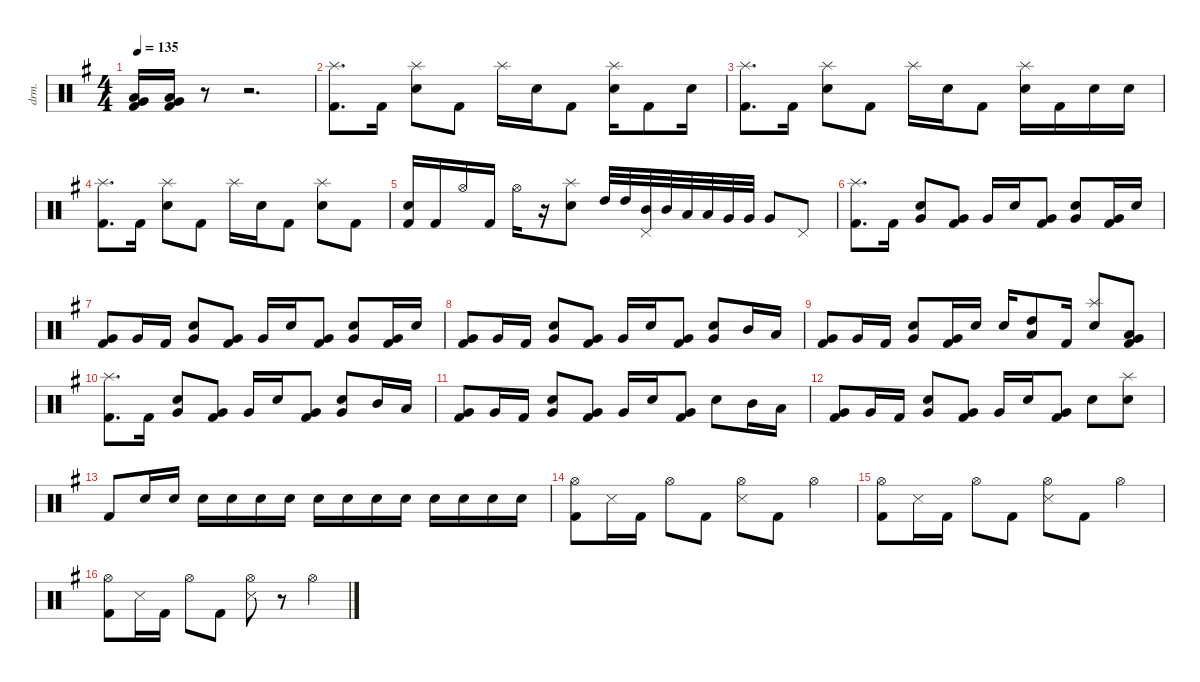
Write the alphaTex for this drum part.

\defaultSystemsLayout 4
\hideDynamics
\bracketExtendMode nobrackets
\track ("榧" "drm.") {instrument percussion}
\staff {score}
\articulation defaults
\ts (4 4)
\tempo 135
\clef neutral
\ks eminor
("Low Tom (hit)"{acc forcenatural} "Very Low Tom (hit)"{acc forcenatural} "Kick (hit) 2"{acc forcenatural}).16{dy mf beam Up} ("Very Low Tom (hit)"{acc forcenatural} "Low Tom (hit)"{acc forcenatural} "Kick (hit) 2"{acc forcenatural}).16{beam Up} r.8{beam Down} r.2{d beam Down} |
("Splash (hit)"{acc forcenatural} "Kick (hit) 2"{acc forcenatural}).8{d beam Down} "Kick (hit) 2"{acc forcenatural}.16{beam Down} ("Snare (hit) 2"{acc forcenatural} "Splash (hit)"{acc forcenatural}).8{beam Down} "Kick (hit) 2"{acc forcenatural}.8{beam Down} "Splash (hit)"{acc forcenatural}.16{beam Down} "Snare (hit) 2"{acc forcenatural}.16{beam Down} "Kick (hit) 2"{acc forcenatural}.8{beam Down} ("Splash (hit)"{acc forcenatural} "Snare (hit) 2"{acc forcenatural}).16{beam Down} "Kick (hit) 2"{acc forcenatural}.8{beam Down} "Snare (hit) 2"{acc forcenatural}.16{beam Down} |
("Splash (hit)"{acc forcenatural} "Kick (hit) 2"{acc forcenatural}).8{d beam Down} "Kick (hit) 2"{acc forcenatural}.16{beam Down} ("Snare (hit) 2"{acc forcenatural} "Splash (hit)"{acc forcenatural}).8{beam Down} "Kick (hit) 2"{acc forcenatural}.8{beam Down} "Splash (hit)"{acc forcenatural}.16{beam Down} "Snare (hit) 2"{acc forcenatural}.16{beam Down} "Kick (hit) 2"{acc forcenatural}.8{beam Down} ("Splash (hit)"{acc forcenatural} "Snare (hit) 2"{acc forcenatural}).16{beam Down} "Kick (hit) 2"{acc forcenatural}.16{beam Down} "Snare (hit) 2"{acc forcenatural}.16{beam Down} "Snare (hit) 2"{acc forcenatural}.16{beam Down} |
("Splash (hit)"{acc forcenatural} "Kick (hit) 2"{acc forcenatural}).8{d beam Down} "Kick (hit) 2"{acc forcenatural}.16{beam Down} ("Snare (hit) 2"{acc forcenatural} "Splash (hit)"{acc forcenatural}).8{beam Down} "Kick (hit) 2"{acc forcenatural}.8{beam Down} "Splash (hit)"{acc forcenatural}.16{beam Down} "Snare (hit) 2"{acc forcenatural}.16{beam Down} "Kick (hit) 2"{acc forcenatural}.8{beam Down} ("Splash (hit)"{acc forcenatural} "Snare (hit) 2"{acc forcenatural}).8{beam Down} "Kick (hit) 2"{acc forcenatural}.8{beam Down} |
("Kick (hit) 2"{acc forcenatural} "Snare (hit) 2"{acc forcenatural}).16{beam Up} "Kick (hit) 2"{acc forcenatural}.16{beam Up} "Hi-Hat (open)"{acc forcenatural}.16{beam Up} "Kick (hit) 2"{acc forcenatural}.16{beam Up} "Hi-Hat (open)"{acc forcenatural}.16{beam Down} r.16{beam Down} ("Splash (hit)"{acc forcenatural} "Snare (hit) 2"{acc forcenatural}).8{beam Down} "High Tom (hit)"{acc forcenatural}.32{beam Up} "High Tom (hit)"{acc forcenatural}.32{beam Up} ("Mid Tom (hit)"{acc forcenatural} "Pedal Hi-Hat (hit)"{acc forcenatural}).32{beam Up} "Mid Tom (hit)"{acc forcenatural}.32{beam Up} "Low Tom (hit)"{acc forcenatural}.32{beam Up} "Low Tom (hit)"{acc forcenatural}.32{beam Up} "Very Low Tom (hit)"{acc forcenatural}.32{beam Up} "Very Low Tom (hit)"{acc forcenatural}.32{beam Up} "Very Low Tom (hit)"{acc forcenatural}.8{beam Up} "Pedal Hi-Hat (hit)"{acc forcenatural}.8{beam Up} |
("Splash (hit)"{acc forcenatural} "Kick (hit) 2"{acc forcenatural}).8{d beam Down} "Kick (hit) 2"{acc forcenatural}.16{beam Down} ("Very Low Tom (hit)"{acc forcenatural} "Snare (hit) 2"{acc forcenatural}).8{beam Up} ("Kick (hit) 2"{acc forcenatural} "Very Low Tom (hit)"{acc forcenatural}).8{beam Up} "Very Low Tom (hit)"{acc forcenatural}.16{beam Up} "Snare (hit) 2"{acc forcenatural}.16{beam Up} ("Kick (hit) 2"{acc forcenatural} "Very Low Tom (hit)"{acc forcenatural}).8{beam Up} ("Very Low Tom (hit)"{acc forcenatural} "Snare (hit) 2"{acc forcenatural}).8{beam Up} ("Kick (hit) 2"{acc forcenatural} "Very Low Tom (hit)"{acc forcenatural}).16{beam Up} "Snare (hit) 2"{acc forcenatural}.16{beam Up} |
("Very Low Tom (hit)"{acc forcenatural} "Kick (hit) 2"{acc forcenatural}).8{beam Up} "Very Low Tom (hit)"{acc forcenatural}.16{beam Up} "Kick (hit) 2"{acc forcenatural}.16{beam Up} ("Very Low Tom (hit)"{acc forcenatural} "Snare (hit) 2"{acc forcenatural}).8{beam Up} ("Kick (hit) 2"{acc forcenatural} "Very Low Tom (hit)"{acc forcenatural}).8{beam Up} "Very Low Tom (hit)"{acc forcenatural}.16{beam Up} "Snare (hit) 2"{acc forcenatural}.16{beam Up} ("Kick (hit) 2"{acc forcenatural} "Very Low Tom (hit)"{acc forcenatural}).8{beam Up} ("Very Low Tom (hit)"{acc forcenatural} "Snare (hit) 2"{acc forcenatural}).8{beam Up} ("Kick (hit) 2"{acc forcenatural} "Very Low Tom (hit)"{acc forcenatural}).16{beam Up} "Snare (hit) 2"{acc forcenatural}.16{beam Up} |
("Very Low Tom (hit)"{acc forcenatural} "Kick (hit) 2"{acc forcenatural}).8{beam Up} "Very Low Tom (hit)"{acc forcenatural}.16{beam Up} "Kick (hit) 2"{acc forcenatural}.16{beam Up} ("Very Low Tom (hit)"{acc forcenatural} "Snare (hit) 2"{acc forcenatural}).8{beam Up} ("Kick (hit) 2"{acc forcenatural} "Very Low Tom (hit)"{acc forcenatural}).8{beam Up} "Very Low Tom (hit)"{acc forcenatural}.16{beam Up} "Snare (hit) 2"{acc forcenatural}.16{beam Up} ("Kick (hit) 2"{acc forcenatural} "Very Low Tom (hit)"{acc forcenatural}).8{beam Up} ("Very Low Tom (hit)"{acc forcenatural} "Snare (hit) 2"{acc forcenatural}).8{beam Up} "Mid Tom (hit)"{acc forcenatural}.16{beam Up} "Low Tom (hit)"{acc forcenatural}.16{beam Up} |
("Very Low Tom (hit)"{acc forcenatural} "Kick (hit) 2"{acc forcenatural}).8{beam Up} "Very Low Tom (hit)"{acc forcenatural}.16{beam Up} "Kick (hit) 2"{acc forcenatural}.16{beam Up} ("Very Low Tom (hit)"{acc forcenatural} "Snare (hit) 2"{acc forcenatural}).8{beam Up} ("Kick (hit) 2"{acc forcenatural} "Very Low Tom (hit)"{acc forcenatural}).16{beam Up} "Snare (hit) 2"{acc forcenatural}.16{beam Up} "Snare (hit) 2"{acc forcenatural}.16{beam Up} ("High Tom (hit)"{acc forcenatural} "Low Tom (hit)"{acc forcenatural}).8{beam Up} "Kick (hit) 2"{acc forcenatural}.16{beam Up} ("Splash (hit)"{acc forcenatural} "Snare (hit) 2"{acc forcenatural}).8{beam Up} ("Kick (hit) 2"{acc forcenatural} "Very Low Tom (hit)"{acc forcenatural} "Low Tom (hit)"{acc forcenatural}).8{beam Up} |
("Splash (hit)"{acc forcenatural} "Kick (hit) 2"{acc forcenatural}).8{d beam Down} "Kick (hit) 2"{acc forcenatural}.16{beam Down} ("Very Low Tom (hit)"{acc forcenatural} "Snare (hit) 2"{acc forcenatural}).8{beam Up} ("Kick (hit) 2"{acc forcenatural} "Very Low Tom (hit)"{acc forcenatural}).8{beam Up} "Very Low Tom (hit)"{acc forcenatural}.16{beam Up} "Snare (hit) 2"{acc forcenatural}.16{beam Up} ("Kick (hit) 2"{acc forcenatural} "Very Low Tom (hit)"{acc forcenatural}).8{beam Up} ("Very Low Tom (hit)"{acc forcenatural} "Snare (hit) 2"{acc forcenatural}).8{beam Up} "Mid Tom (hit)"{acc forcenatural}.16{beam Up} "Low Tom (hit)"{acc forcenatural}.16{beam Up} |
("Very Low Tom (hit)"{acc forcenatural} "Kick (hit) 2"{acc forcenatural}).8{beam Up} "Very Low Tom (hit)"{acc forcenatural}.16{beam Up} "Kick (hit) 2"{acc forcenatural}.16{beam Up} ("Very Low Tom (hit)"{acc forcenatural} "Snare (hit) 2"{acc forcenatural}).8{beam Up} ("Kick (hit) 2"{acc forcenatural} "Very Low Tom (hit)"{acc forcenatural}).8{beam Up} "Very Low Tom (hit)"{acc forcenatural}.16{beam Up} "Snare (hit) 2"{acc forcenatural}.16{beam Up} ("Kick (hit) 2"{acc forcenatural} "Very Low Tom (hit)"{acc forcenatural}).8{beam Up} "Snare (hit) 2"{acc forcenatural}.8{beam Down} "Mid Tom (hit)"{acc forcenatural}.16{beam Down} "Low Tom (hit)"{acc forcenatural}.16{beam Down} |
("Very Low Tom (hit)"{acc forcenatural} "Kick (hit) 2"{acc forcenatural}).8{beam Up} "Very Low Tom (hit)"{acc forcenatural}.16{beam Up} "Kick (hit) 2"{acc forcenatural}.16{beam Up} ("Very Low Tom (hit)"{acc forcenatural} "Snare (hit) 2"{acc forcenatural}).8{beam Up} ("Kick (hit) 2"{acc forcenatural} "Very Low Tom (hit)"{acc forcenatural}).8{beam Up} "Very Low Tom (hit)"{acc forcenatural}.16{beam Up} "Snare (hit) 2"{acc forcenatural}.16{beam Up} ("Kick (hit) 2"{acc forcenatural} "Very Low Tom (hit)"{acc forcenatural}).8{beam Up} "Snare (hit) 2"{acc forcenatural}.8{beam Down} ("Snare (hit) 2"{acc forcenatural} "Splash (hit)"{acc forcenatural}).8{beam Down} |
"Kick (hit) 2"{acc forcenatural}.8{beam Up} "Snare (hit) 2"{acc forcenatural}.16{beam Up} "Snare (hit) 2"{acc forcenatural}.16{beam Up} "Snare (hit) 2"{acc forcenatural}.16{beam Down} "Snare (hit) 2"{acc forcenatural}.16{beam Down} "Snare (hit) 2"{acc forcenatural}.16{beam Down} "Snare (hit) 2"{acc forcenatural}.16{beam Down} "Snare (hit) 2"{acc forcenatural}.16{beam Down} "Snare (hit) 2"{acc forcenatural}.16{beam Down} "Snare (hit) 2"{acc forcenatural}.16{beam Down} "Snare (hit) 2"{acc forcenatural}.16{beam Down} "Snare (hit) 2"{acc forcenatural}.16{beam Down} "Snare (hit) 2"{acc forcenatural}.16{beam Down} "Snare (hit) 2"{acc forcenatural}.16{beam Down} "Snare (hit) 2"{acc forcenatural}.16{beam Down} |
("Hi-Hat (open)"{acc forcenatural} "Kick (hit) 2"{acc forcenatural}).8{beam Down} "Snare (side stick) 3"{acc forcenatural}.16{beam Down} "Kick (hit) 2"{acc forcenatural}.16{beam Down} "Hi-Hat (open)"{acc forcenatural}.8{beam Down} "Kick (hit) 2"{acc forcenatural}.8{beam Down} ("Hi-Hat (open)"{acc forcenatural} "Snare (side stick) 3"{acc forcenatural}).8{beam Down} "Kick (hit) 2"{acc forcenatural}.8{beam Down} "Hi-Hat (open)"{acc forcenatural}.4{beam Down} |
("Hi-Hat (open)"{acc forcenatural} "Kick (hit) 2"{acc forcenatural}).8{beam Down} "Snare (side stick) 3"{acc forcenatural}.16{beam Down} "Kick (hit) 2"{acc forcenatural}.16{beam Down} "Hi-Hat (open)"{acc forcenatural}.8{beam Down} "Kick (hit) 2"{acc forcenatural}.8{beam Down} ("Hi-Hat (open)"{acc forcenatural} "Snare (side stick) 3"{acc forcenatural}).8{beam Down} "Kick (hit) 2"{acc forcenatural}.8{beam Down} "Hi-Hat (open)"{acc forcenatural}.4{beam Down} |
("Hi-Hat (open)"{acc forcenatural} "Kick (hit) 2"{acc forcenatural}).8{beam Down} "Snare (side stick) 3"{acc forcenatural}.16{beam Down} "Kick (hit) 2"{acc forcenatural}.16{beam Down} "Hi-Hat (open)"{acc forcenatural}.8{beam Down} "Kick (hit) 2"{acc forcenatural}.8{beam Down} ("Hi-Hat (open)"{acc forcenatural} "Snare (side stick) 3"{acc forcenatural}).8{beam Down} r.8{beam Down} "Hi-Hat (open)"{acc forcenatural}.4{beam Down}
